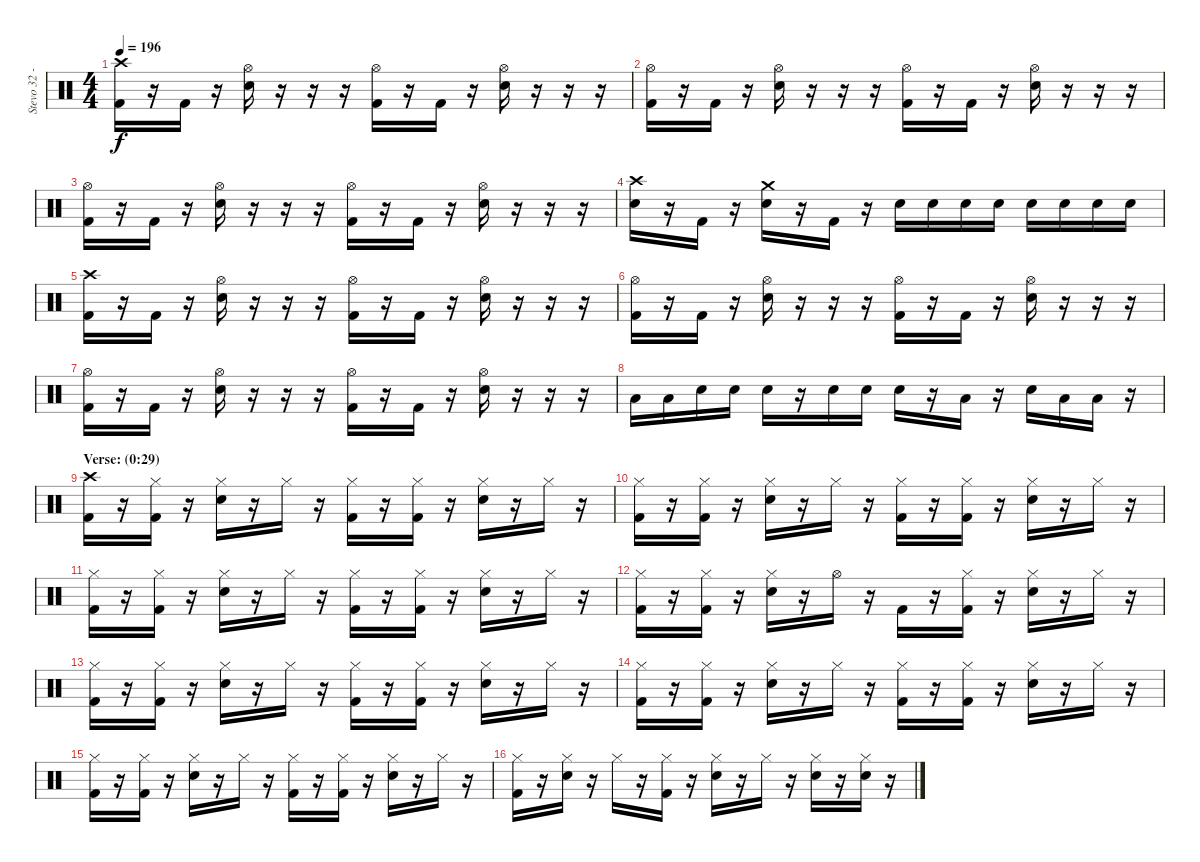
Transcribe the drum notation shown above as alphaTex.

\track ("Stevo 32 - Drums" "Stevo 32 -") {instrument percussion}
\staff {score}
\articulation defaults
\ts (4 4)
\tempo 196
\clef neutral
\ks c
("Crash high (hit)" "Kick (hit) 2").16{dy f} r.16 "Kick (hit) 2".16 r.16 ("Hi-Hat (open)" "Snare (hit) 2").16 r.16 r.16 r.16 ("Hi-Hat (open)" "Kick (hit) 2").16 r.16 "Kick (hit) 2".16 r.16 ("Hi-Hat (open)" "Snare (hit) 2").16 r.16 r.16 r.16 |
("Hi-Hat (open)" "Kick (hit) 2").16 r.16 "Kick (hit) 2".16 r.16 ("Hi-Hat (open)" "Snare (hit) 2").16 r.16 r.16 r.16 ("Hi-Hat (open)" "Kick (hit) 2").16 r.16 "Kick (hit) 2".16 r.16 ("Hi-Hat (open)" "Snare (hit) 2").16 r.16 r.16 r.16 |
("Hi-Hat (open)" "Kick (hit) 2").16 r.16 "Kick (hit) 2".16 r.16 ("Hi-Hat (open)" "Snare (hit) 2").16 r.16 r.16 r.16 ("Hi-Hat (open)" "Kick (hit) 2").16 r.16 "Kick (hit) 2".16 r.16 ("Hi-Hat (open)" "Snare (hit) 2").16 r.16 r.16 r.16 |
("Crash high (hit)" "Snare (hit) 2").16 r.16 "Kick (hit) 2".16 r.16 ("Crash medium (hit)" "Snare (hit) 2").16 r.16 "Kick (hit) 2".16 r.16 "Snare (hit) 2".16 "Snare (hit) 2".16 "Snare (hit) 2".16 "Snare (hit) 2".16 "Snare (hit) 2".16 "Snare (hit) 2".16 "Snare (hit) 2".16 "Snare (hit) 2".16 |
("Crash high (hit)" "Kick (hit) 2").16 r.16 "Kick (hit) 2".16 r.16 ("Hi-Hat (open)" "Snare (hit) 2").16 r.16 r.16 r.16 ("Hi-Hat (open)" "Kick (hit) 2").16 r.16 "Kick (hit) 2".16 r.16 ("Hi-Hat (open)" "Snare (hit) 2").16 r.16 r.16 r.16 |
("Hi-Hat (open)" "Kick (hit) 2").16 r.16 "Kick (hit) 2".16 r.16 ("Hi-Hat (open)" "Snare (hit) 2").16 r.16 r.16 r.16 ("Hi-Hat (open)" "Kick (hit) 2").16 r.16 "Kick (hit) 2".16 r.16 ("Hi-Hat (open)" "Snare (hit) 2").16 r.16 r.16 r.16 |
("Hi-Hat (open)" "Kick (hit) 2").16 r.16 "Kick (hit) 2".16 r.16 ("Hi-Hat (open)" "Snare (hit) 2").16 r.16 r.16 r.16 ("Hi-Hat (open)" "Kick (hit) 2").16 r.16 "Kick (hit) 2".16 r.16 ("Hi-Hat (open)" "Snare (hit) 2").16 r.16 r.16 r.16 |
"Low Tom (hit)".16 "Low Tom (hit)".16 "Snare (hit) 2".16 "Snare (hit) 2".16 "Snare (hit) 2".16 r.16 "Snare (hit) 2".16 "Snare (hit) 2".16 "Snare (hit) 2".16 r.16 "Low Tom (hit)".16 r.16 "Snare (hit) 2".16 "Low Tom (hit)".16 "Low Tom (hit)".16 r.16 |
\section ("" "Verse: (0:29)")
("Crash high (hit)" "Kick (hit) 2").16 r.16 ("Hi-Hat (closed)" "Kick (hit) 2").16 r.16 ("Hi-Hat (closed)" "Snare (hit) 2").16 r.16 "Hi-Hat (closed)".16 r.16 ("Hi-Hat (closed)" "Kick (hit) 2").16 r.16 ("Hi-Hat (closed)" "Kick (hit) 2").16 r.16 ("Hi-Hat (closed)" "Snare (hit) 2").16 r.16 "Hi-Hat (closed)".16 r.16 |
("Hi-Hat (closed)" "Kick (hit) 2").16 r.16 ("Hi-Hat (closed)" "Kick (hit) 2").16 r.16 ("Hi-Hat (closed)" "Snare (hit) 2").16 r.16 "Hi-Hat (closed)".16 r.16 ("Hi-Hat (closed)" "Kick (hit) 2").16 r.16 ("Hi-Hat (closed)" "Kick (hit) 2").16 r.16 ("Hi-Hat (closed)" "Snare (hit) 2").16 r.16 "Hi-Hat (closed)".16 r.16 |
("Hi-Hat (closed)" "Kick (hit) 2").16 r.16 ("Hi-Hat (closed)" "Kick (hit) 2").16 r.16 ("Hi-Hat (closed)" "Snare (hit) 2").16 r.16 "Hi-Hat (closed)".16 r.16 ("Hi-Hat (closed)" "Kick (hit) 2").16 r.16 ("Hi-Hat (closed)" "Kick (hit) 2").16 r.16 ("Hi-Hat (closed)" "Snare (hit) 2").16 r.16 "Hi-Hat (closed)".16 r.16 |
("Hi-Hat (closed)" "Kick (hit) 2").16 r.16 ("Hi-Hat (closed)" "Kick (hit) 2").16 r.16 ("Hi-Hat (closed)" "Snare (hit) 2").16 r.16 "Hi-Hat (open)".16 r.16 "Kick (hit) 2".16 r.16 ("Hi-Hat (closed)" "Kick (hit) 2").16 r.16 ("Hi-Hat (closed)" "Snare (hit) 2").16 r.16 "Hi-Hat (closed)".16 r.16 |
("Hi-Hat (closed)" "Kick (hit) 2").16 r.16 ("Hi-Hat (closed)" "Kick (hit) 2").16 r.16 ("Hi-Hat (closed)" "Snare (hit) 2").16 r.16 "Hi-Hat (closed)".16 r.16 ("Hi-Hat (closed)" "Kick (hit) 2").16 r.16 ("Hi-Hat (closed)" "Kick (hit) 2").16 r.16 ("Hi-Hat (closed)" "Snare (hit) 2").16 r.16 "Hi-Hat (closed)".16 r.16 |
("Hi-Hat (closed)" "Kick (hit) 2").16 r.16 ("Hi-Hat (closed)" "Kick (hit) 2").16 r.16 ("Hi-Hat (closed)" "Snare (hit) 2").16 r.16 "Hi-Hat (closed)".16 r.16 ("Hi-Hat (closed)" "Kick (hit) 2").16 r.16 ("Hi-Hat (closed)" "Kick (hit) 2").16 r.16 ("Hi-Hat (closed)" "Snare (hit) 2").16 r.16 "Hi-Hat (closed)".16 r.16 |
("Hi-Hat (closed)" "Kick (hit) 2").16 r.16 ("Hi-Hat (closed)" "Kick (hit) 2").16 r.16 ("Hi-Hat (closed)" "Snare (hit) 2").16 r.16 "Hi-Hat (closed)".16 r.16 ("Hi-Hat (closed)" "Kick (hit) 2").16 r.16 ("Hi-Hat (closed)" "Kick (hit) 2").16 r.16 ("Hi-Hat (closed)" "Snare (hit) 2").16 r.16 "Hi-Hat (closed)".16 r.16 |
("Hi-Hat (closed)" "Kick (hit) 2").16 r.16 ("Hi-Hat (closed)" "Snare (hit) 2").16 r.16 "Hi-Hat (closed)".16 r.16 ("Hi-Hat (closed)" "Kick (hit) 2").16 r.16 ("Hi-Hat (closed)" "Snare (hit) 2").16 r.16 "Hi-Hat (closed)".16 r.16 ("Hi-Hat (closed)" "Snare (hit) 2").16 r.16 ("Hi-Hat (closed)" "Snare (hit) 2").16 r.16
